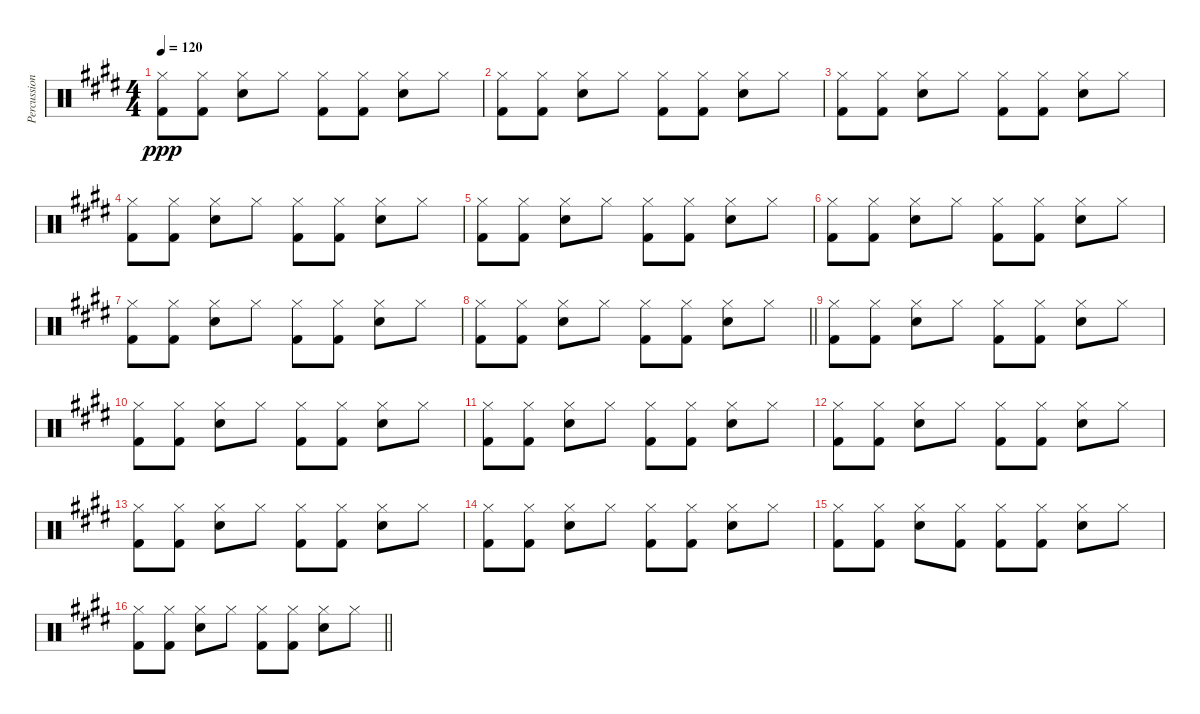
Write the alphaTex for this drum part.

\track ("Percussion" "Percussion") {solo instrument percussion}
\staff {score}
\articulation defaults
\ts (4 4)
\tempo 120
\clef neutral
\ks e
("Hi-Hat (closed)" "Kick (hit) 2").8{dy ppp} ("Hi-Hat (closed)" "Kick (hit) 2").8 ("Hi-Hat (closed)" "Snare (hit) 2").8 "Hi-Hat (closed)".8 ("Hi-Hat (closed)" "Kick (hit) 2").8 ("Hi-Hat (closed)" "Kick (hit) 2").8 ("Hi-Hat (closed)" "Snare (hit) 2").8 "Hi-Hat (closed)".8 |
("Hi-Hat (closed)" "Kick (hit) 2").8 ("Hi-Hat (closed)" "Kick (hit) 2").8 ("Hi-Hat (closed)" "Snare (hit) 2").8 "Hi-Hat (closed)".8 ("Hi-Hat (closed)" "Kick (hit) 2").8 ("Hi-Hat (closed)" "Kick (hit) 2").8 ("Hi-Hat (closed)" "Snare (hit) 2").8 "Hi-Hat (closed)".8 |
("Hi-Hat (closed)" "Kick (hit) 2").8 ("Hi-Hat (closed)" "Kick (hit) 2").8 ("Hi-Hat (closed)" "Snare (hit) 2").8 "Hi-Hat (closed)".8 ("Hi-Hat (closed)" "Kick (hit) 2").8 ("Hi-Hat (closed)" "Kick (hit) 2").8 ("Hi-Hat (closed)" "Snare (hit) 2").8 "Hi-Hat (closed)".8 |
("Hi-Hat (closed)" "Kick (hit) 2").8 ("Hi-Hat (closed)" "Kick (hit) 2").8 ("Hi-Hat (closed)" "Snare (hit) 2").8 "Hi-Hat (closed)".8 ("Hi-Hat (closed)" "Kick (hit) 2").8 ("Hi-Hat (closed)" "Kick (hit) 2").8 ("Hi-Hat (closed)" "Snare (hit) 2").8 "Hi-Hat (closed)".8 |
("Hi-Hat (closed)" "Kick (hit) 2").8 ("Hi-Hat (closed)" "Kick (hit) 2").8 ("Hi-Hat (closed)" "Snare (hit) 2").8 "Hi-Hat (closed)".8 ("Hi-Hat (closed)" "Kick (hit) 2").8 ("Hi-Hat (closed)" "Kick (hit) 2").8 ("Hi-Hat (closed)" "Snare (hit) 2").8 "Hi-Hat (closed)".8 |
("Hi-Hat (closed)" "Kick (hit) 2").8 ("Hi-Hat (closed)" "Kick (hit) 2").8 ("Hi-Hat (closed)" "Snare (hit) 2").8 "Hi-Hat (closed)".8 ("Hi-Hat (closed)" "Kick (hit) 2").8 ("Hi-Hat (closed)" "Kick (hit) 2").8 ("Hi-Hat (closed)" "Snare (hit) 2").8 "Hi-Hat (closed)".8 |
("Hi-Hat (closed)" "Kick (hit) 2").8 ("Hi-Hat (closed)" "Kick (hit) 2").8 ("Hi-Hat (closed)" "Snare (hit) 2").8 "Hi-Hat (closed)".8 ("Hi-Hat (closed)" "Kick (hit) 2").8 ("Hi-Hat (closed)" "Kick (hit) 2").8 ("Hi-Hat (closed)" "Snare (hit) 2").8 "Hi-Hat (closed)".8 |
\barLineRight lightlight
("Hi-Hat (closed)" "Kick (hit) 2").8 ("Hi-Hat (closed)" "Kick (hit) 2").8 ("Hi-Hat (closed)" "Snare (hit) 2").8 "Hi-Hat (closed)".8 ("Hi-Hat (closed)" "Kick (hit) 2").8 ("Hi-Hat (closed)" "Kick (hit) 2").8 ("Hi-Hat (closed)" "Snare (hit) 2").8 "Hi-Hat (closed)".8 |
("Hi-Hat (closed)" "Kick (hit) 2").8 ("Hi-Hat (closed)" "Kick (hit) 2").8 ("Hi-Hat (closed)" "Snare (hit) 2").8 "Hi-Hat (closed)".8 ("Hi-Hat (closed)" "Kick (hit) 2").8 ("Hi-Hat (closed)" "Kick (hit) 2").8 ("Hi-Hat (closed)" "Snare (hit) 2").8 "Hi-Hat (closed)".8 |
("Hi-Hat (closed)" "Kick (hit) 2").8 ("Hi-Hat (closed)" "Kick (hit) 2").8 ("Hi-Hat (closed)" "Snare (hit) 2").8 "Hi-Hat (closed)".8 ("Hi-Hat (closed)" "Kick (hit) 2").8 ("Hi-Hat (closed)" "Kick (hit) 2").8 ("Hi-Hat (closed)" "Snare (hit) 2").8 "Hi-Hat (closed)".8 |
("Hi-Hat (closed)" "Kick (hit) 2").8 ("Hi-Hat (closed)" "Kick (hit) 2").8 ("Hi-Hat (closed)" "Snare (hit) 2").8 "Hi-Hat (closed)".8 ("Hi-Hat (closed)" "Kick (hit) 2").8 ("Hi-Hat (closed)" "Kick (hit) 2").8 ("Hi-Hat (closed)" "Snare (hit) 2").8 "Hi-Hat (closed)".8 |
("Hi-Hat (closed)" "Kick (hit) 2").8 ("Hi-Hat (closed)" "Kick (hit) 2").8 ("Hi-Hat (closed)" "Snare (hit) 2").8 "Hi-Hat (closed)".8 ("Hi-Hat (closed)" "Kick (hit) 2").8 ("Hi-Hat (closed)" "Kick (hit) 2").8 ("Hi-Hat (closed)" "Snare (hit) 2").8 "Hi-Hat (closed)".8 |
("Hi-Hat (closed)" "Kick (hit) 2").8 ("Hi-Hat (closed)" "Kick (hit) 2").8 ("Hi-Hat (closed)" "Snare (hit) 2").8 "Hi-Hat (closed)".8 ("Hi-Hat (closed)" "Kick (hit) 2").8 ("Hi-Hat (closed)" "Kick (hit) 2").8 ("Hi-Hat (closed)" "Snare (hit) 2").8 "Hi-Hat (closed)".8 |
("Hi-Hat (closed)" "Kick (hit) 2").8 ("Hi-Hat (closed)" "Kick (hit) 2").8 ("Hi-Hat (closed)" "Snare (hit) 2").8 "Hi-Hat (closed)".8 ("Hi-Hat (closed)" "Kick (hit) 2").8 ("Hi-Hat (closed)" "Kick (hit) 2").8 ("Hi-Hat (closed)" "Snare (hit) 2").8 "Hi-Hat (closed)".8 |
("Hi-Hat (closed)" "Kick (hit) 2").8 ("Hi-Hat (closed)" "Kick (hit) 2").8 ("Hi-Hat (closed)" "Snare (hit) 2").8 ("Hi-Hat (closed)" "Kick (hit) 2").8 ("Hi-Hat (closed)" "Kick (hit) 2").8 ("Hi-Hat (closed)" "Kick (hit) 2").8 ("Hi-Hat (closed)" "Snare (hit) 2").8 "Hi-Hat (closed)".8 |
\barLineRight lightlight
("Hi-Hat (closed)" "Kick (hit) 2").8 ("Hi-Hat (closed)" "Kick (hit) 2").8 ("Hi-Hat (closed)" "Snare (hit) 2").8 "Hi-Hat (closed)".8 ("Hi-Hat (closed)" "Kick (hit) 2").8 ("Hi-Hat (closed)" "Kick (hit) 2").8 ("Hi-Hat (closed)" "Snare (hit) 2").8 "Hi-Hat (closed)".8
